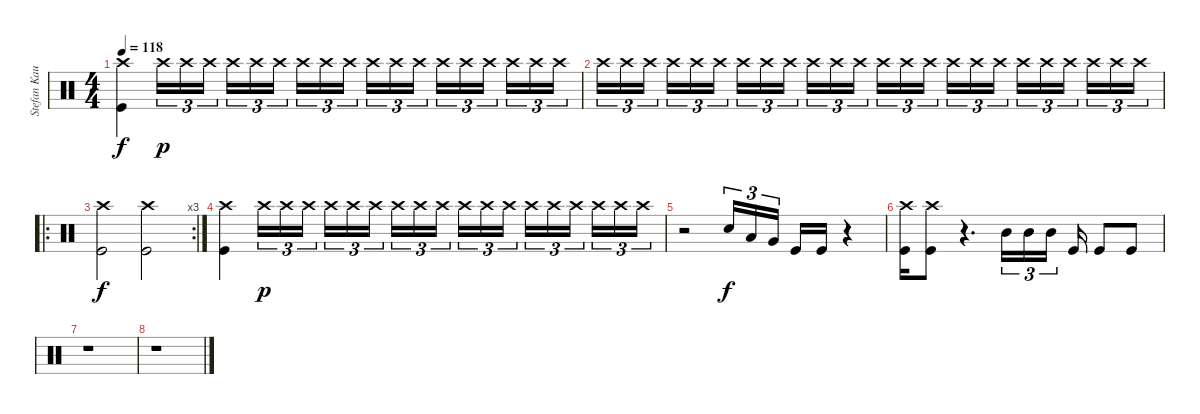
\track ("Stefan Kaufmann" "Stefan Kau") {instrument percussion}
\staff {score}
\articulation defaults
\ts (4 4)
\tempo 118
\clef neutral
\ks c
("Crash high (hit)" "Kick (hit)").4{dy f} "Crash high (hit)".16{tu (3 2) dy p} "Crash high (hit)".16{tu (3 2)} "Crash high (hit)".16{tu (3 2)} "Crash high (hit)".16{tu (3 2)} "Crash high (hit)".16{tu (3 2)} "Crash high (hit)".16{tu (3 2)} "Crash high (hit)".16{tu (3 2)} "Crash high (hit)".16{tu (3 2)} "Crash high (hit)".16{tu (3 2)} "Crash high (hit)".16{tu (3 2)} "Crash high (hit)".16{tu (3 2)} "Crash high (hit)".16{tu (3 2)} "Crash high (hit)".16{tu (3 2)} "Crash high (hit)".16{tu (3 2)} "Crash high (hit)".16{tu (3 2)} "Crash high (hit)".16{tu (3 2)} "Crash high (hit)".16{tu (3 2)} "Crash high (hit)".16{tu (3 2)} |
"Crash high (hit)".16{tu (3 2)} "Crash high (hit)".16{tu (3 2)} "Crash high (hit)".16{tu (3 2)} "Crash high (hit)".16{tu (3 2)} "Crash high (hit)".16{tu (3 2)} "Crash high (hit)".16{tu (3 2)} "Crash high (hit)".16{tu (3 2)} "Crash high (hit)".16{tu (3 2)} "Crash high (hit)".16{tu (3 2)} "Crash high (hit)".16{tu (3 2)} "Crash high (hit)".16{tu (3 2)} "Crash high (hit)".16{tu (3 2)} "Crash high (hit)".16{tu (3 2)} "Crash high (hit)".16{tu (3 2)} "Crash high (hit)".16{tu (3 2)} "Crash high (hit)".16{tu (3 2)} "Crash high (hit)".16{tu (3 2)} "Crash high (hit)".16{tu (3 2)} "Crash high (hit)".16{tu (3 2)} "Crash high (hit)".16{tu (3 2)} "Crash high (hit)".16{tu (3 2)} "Crash high (hit)".16{tu (3 2)} "Crash high (hit)".16{tu (3 2)} "Crash high (hit)".16{tu (3 2)} |
\ro
\rc 3
("Crash high (hit)" "Kick (hit)").2{dy f} ("Crash high (hit)" "Kick (hit)").2 |
("Crash high (hit)" "Kick (hit)").4 "Crash high (hit)".16{tu (3 2) dy p} "Crash high (hit)".16{tu (3 2)} "Crash high (hit)".16{tu (3 2)} "Crash high (hit)".16{tu (3 2)} "Crash high (hit)".16{tu (3 2)} "Crash high (hit)".16{tu (3 2)} "Crash high (hit)".16{tu (3 2)} "Crash high (hit)".16{tu (3 2)} "Crash high (hit)".16{tu (3 2)} "Crash high (hit)".16{tu (3 2)} "Crash high (hit)".16{tu (3 2)} "Crash high (hit)".16{tu (3 2)} "Crash high (hit)".16{tu (3 2)} "Crash high (hit)".16{tu (3 2)} "Crash high (hit)".16{tu (3 2)} "Crash high (hit)".16{tu (3 2)} "Crash high (hit)".16{tu (3 2)} "Crash high (hit)".16{tu (3 2)} |
r.2 "Snare (hit) 2".16{tu (3 2) dy f} "Low Tom (hit)".16{tu (3 2)} "Very Low Tom (hit)".16{tu (3 2)} "Kick (hit)".16 "Kick (hit)".16 r.4 |
("Crash high (hit)" "Kick (hit)").16 ("Crash high (hit)" "Kick (hit)").8 r.4{d} "Mid Tom (hit)".16{tu (3 2)} "Mid Tom (hit)".16{tu (3 2)} "Mid Tom (hit)".16{tu (3 2)} "Kick (hit)".16 "Kick (hit)".8 "Kick (hit)".8 |
r.1 |
r.1
